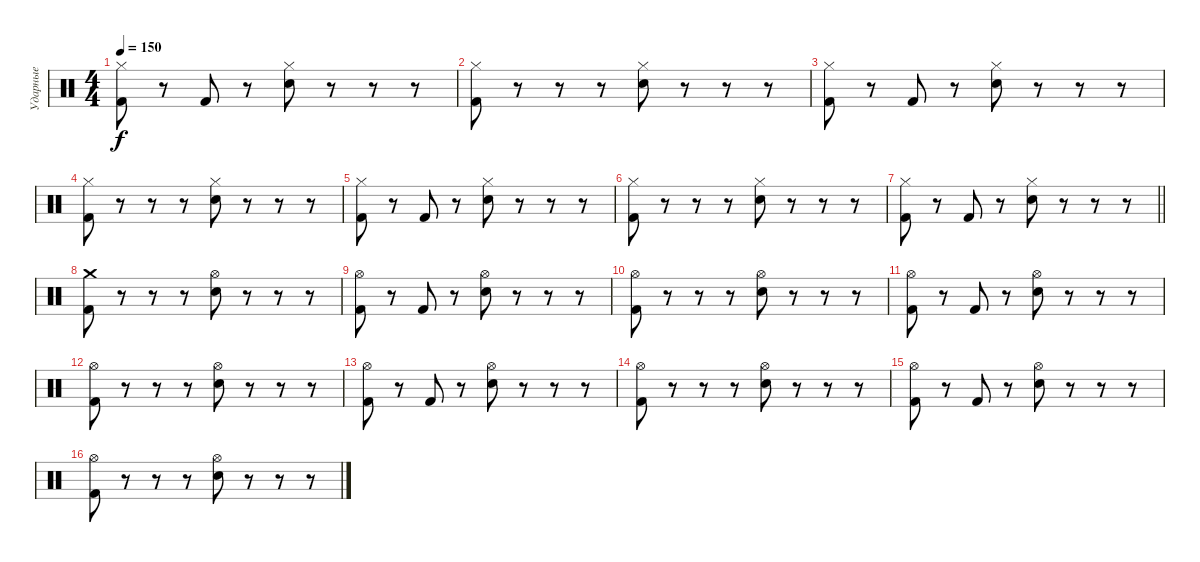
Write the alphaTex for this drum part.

\track ("Ударные" "Ударные") {instrument percussion}
\staff {score}
\articulation defaults
\ts (4 4)
\tempo 150
\clef neutral
\ks c
("Hi-Hat (closed)" "Kick (hit) 2").8{dy f} r.8 "Kick (hit) 2".8 r.8 ("Hi-Hat (closed)" "Electric Snare (hit)").8 r.8 r.8 r.8 |
("Hi-Hat (closed)" "Kick (hit) 2").8 r.8 r.8 r.8 ("Hi-Hat (closed)" "Electric Snare (hit)").8 r.8 r.8 r.8 |
("Hi-Hat (closed)" "Kick (hit) 2").8 r.8 "Kick (hit) 2".8 r.8 ("Hi-Hat (closed)" "Electric Snare (hit)").8 r.8 r.8 r.8 |
("Hi-Hat (closed)" "Kick (hit) 2").8 r.8 r.8 r.8 ("Hi-Hat (closed)" "Electric Snare (hit)").8 r.8 r.8 r.8 |
("Hi-Hat (closed)" "Kick (hit) 2").8 r.8 "Kick (hit) 2".8 r.8 ("Hi-Hat (closed)" "Electric Snare (hit)").8 r.8 r.8 r.8 |
("Hi-Hat (closed)" "Kick (hit) 2").8 r.8 r.8 r.8 ("Hi-Hat (closed)" "Electric Snare (hit)").8 r.8 r.8 r.8 |
\barLineRight lightlight
("Hi-Hat (closed)" "Kick (hit) 2").8 r.8 "Kick (hit) 2".8 r.8 ("Hi-Hat (closed)" "Electric Snare (hit)").8 r.8 r.8 r.8 |
("Crash medium (hit)" "Kick (hit) 2").8 r.8 r.8 r.8 ("Hi-Hat (open)" "Electric Snare (hit)").8 r.8 r.8 r.8 |
("Hi-Hat (open)" "Kick (hit) 2").8 r.8 "Kick (hit) 2".8 r.8 ("Hi-Hat (open)" "Electric Snare (hit)").8 r.8 r.8 r.8 |
("Hi-Hat (open)" "Kick (hit) 2").8 r.8 r.8 r.8 ("Hi-Hat (open)" "Electric Snare (hit)").8 r.8 r.8 r.8 |
("Hi-Hat (open)" "Kick (hit) 2").8 r.8 "Kick (hit) 2".8 r.8 ("Hi-Hat (open)" "Electric Snare (hit)").8 r.8 r.8 r.8 |
("Hi-Hat (open)" "Kick (hit) 2").8 r.8 r.8 r.8 ("Hi-Hat (open)" "Electric Snare (hit)").8 r.8 r.8 r.8 |
("Hi-Hat (open)" "Kick (hit) 2").8 r.8 "Kick (hit) 2".8 r.8 ("Hi-Hat (open)" "Electric Snare (hit)").8 r.8 r.8 r.8 |
("Hi-Hat (open)" "Kick (hit) 2").8 r.8 r.8 r.8 ("Hi-Hat (open)" "Electric Snare (hit)").8 r.8 r.8 r.8 |
("Hi-Hat (open)" "Kick (hit) 2").8 r.8 "Kick (hit) 2".8 r.8 ("Hi-Hat (open)" "Electric Snare (hit)").8 r.8 r.8 r.8 |
("Hi-Hat (open)" "Kick (hit) 2").8 r.8 r.8 r.8 ("Hi-Hat (open)" "Electric Snare (hit)").8 r.8 r.8 r.8
